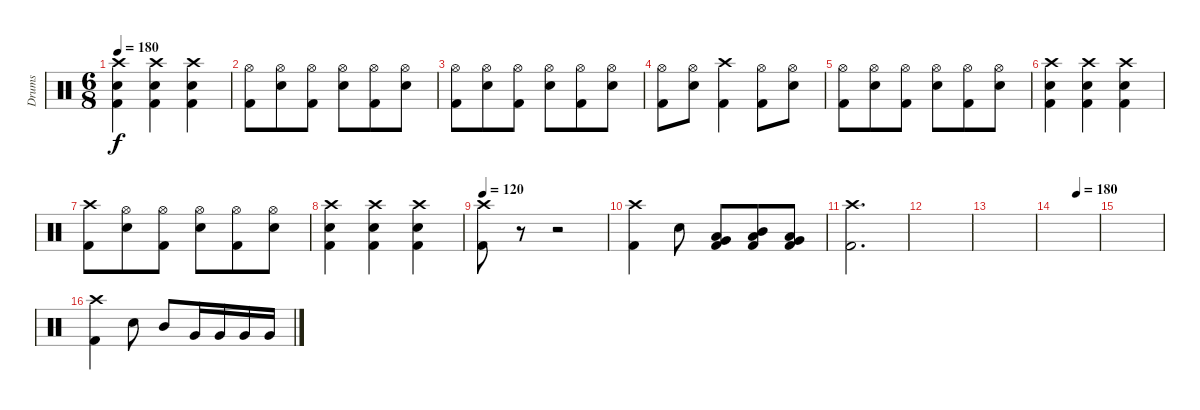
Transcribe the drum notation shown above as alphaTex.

\track ("Drums" "Drums") {instrument percussion}
\staff {score}
\articulation defaults
\ts (6 8)
\tempo 180
\clef neutral
\ks c
("Crash high (hit)" "Snare (hit) 2" "Kick (hit) 2").4{dy f} ("Crash high (hit)" "Snare (hit) 2" "Kick (hit) 2").4 ("Crash high (hit)" "Snare (hit) 2" "Kick (hit) 2").4 |
("Hi-Hat (open)" "Kick (hit) 2").8 ("Hi-Hat (open)" "Snare (hit) 2").8 ("Hi-Hat (open)" "Kick (hit) 2").8 ("Hi-Hat (open)" "Snare (hit) 2").8 ("Hi-Hat (open)" "Kick (hit) 2").8 ("Hi-Hat (open)" "Snare (hit) 2").8 |
("Hi-Hat (open)" "Kick (hit) 2").8 ("Hi-Hat (open)" "Snare (hit) 2").8 ("Hi-Hat (open)" "Kick (hit) 2").8 ("Hi-Hat (open)" "Snare (hit) 2").8 ("Hi-Hat (open)" "Kick (hit) 2").8 ("Hi-Hat (open)" "Snare (hit) 2").8 |
("Hi-Hat (open)" "Kick (hit) 2").8 ("Hi-Hat (open)" "Snare (hit) 2").8 ("Crash high (hit)" "Kick (hit) 2").4 ("Hi-Hat (open)" "Kick (hit) 2").8 ("Hi-Hat (open)" "Snare (hit) 2").8 |
("Hi-Hat (open)" "Kick (hit) 2").8 ("Hi-Hat (open)" "Snare (hit) 2").8 ("Hi-Hat (open)" "Kick (hit) 2").8 ("Hi-Hat (open)" "Snare (hit) 2").8 ("Hi-Hat (open)" "Kick (hit) 2").8 ("Hi-Hat (open)" "Snare (hit) 2").8 |
("Crash high (hit)" "Snare (hit) 2" "Kick (hit) 2").4 ("Crash high (hit)" "Snare (hit) 2" "Kick (hit) 2").4 ("Crash high (hit)" "Snare (hit) 2" "Kick (hit) 2").4 |
("Crash high (hit)" "Kick (hit) 2").8 ("Hi-Hat (open)" "Snare (hit) 2").8 ("Hi-Hat (open)" "Kick (hit) 2").8 ("Hi-Hat (open)" "Snare (hit) 2").8 ("Hi-Hat (open)" "Kick (hit) 2").8 ("Hi-Hat (open)" "Snare (hit) 2").8 |
("Crash high (hit)" "Snare (hit) 2" "Kick (hit) 2").4 ("Crash high (hit)" "Snare (hit) 2" "Kick (hit) 2").4 ("Crash high (hit)" "Snare (hit) 2" "Kick (hit) 2").4 |
\tempo 120
("Crash high (hit)" "Kick (hit) 2").8 r.8 r.2 |
("Crash high (hit)" "Kick (hit) 2").4 "Snare (hit) 2".8 ("Low Tom (hit)" "Very Low Tom (hit)" "Kick (hit) 2").8 ("Mid Tom (hit)" "Low Tom (hit)" "Kick (hit) 2").8 ("Low Tom (hit)" "Very Low Tom (hit)" "Kick (hit) 2").8 |
("Crash high (hit)" "Kick (hit) 2").2{d} |
|
|
\tempo (180 0.5)
|
|
("Crash high (hit)" "Kick (hit) 2").4 "Snare (hit) 2".8 "Mid Tom (hit)".8 "Very Low Tom (hit)".16 "Very Low Tom (hit)".16 "Very Low Tom (hit)".16 "Very Low Tom (hit)".16
